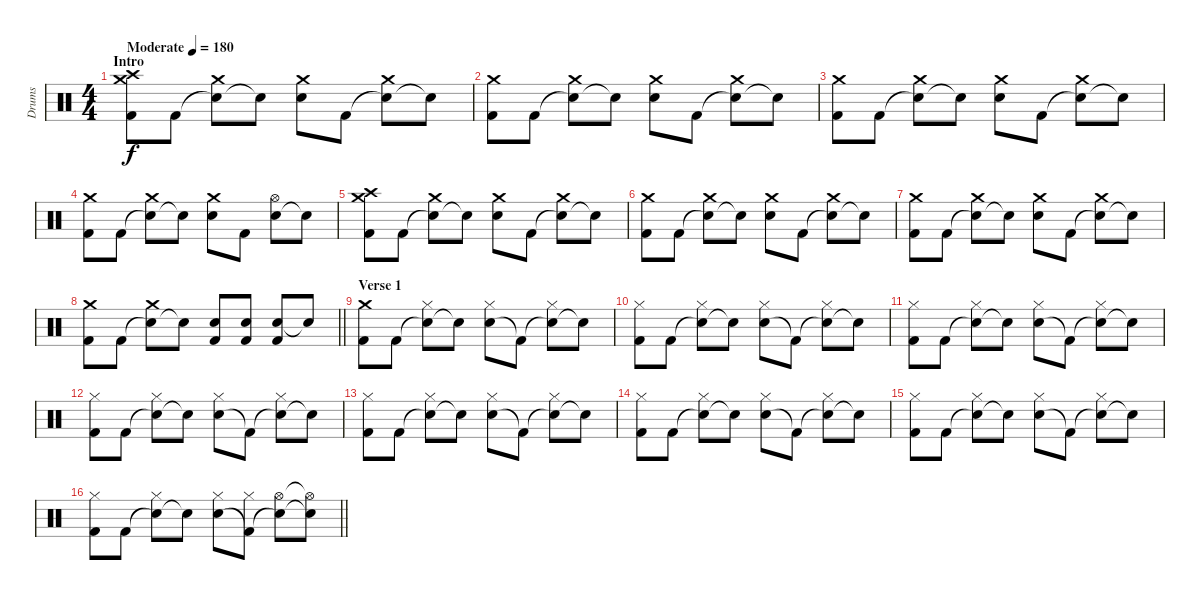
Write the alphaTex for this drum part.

\track ("Drums" "Drums") {instrument percussion}
\staff {score}
\articulation defaults
\ts (4 4)
\section ("" "Intro")
\tempo (180 "Moderate")
\clef neutral
\ks c
("Kick (hit) 2" "Crash medium (hit)" "Crash high (hit)").8{dy f} "Kick (hit) 2".8 ("Snare (hit)"{t} "Crash medium (hit)").8 "Snare (hit)"{t}.8 ("Electric Snare (hit)" "Crash medium (hit)").8 "Kick (hit) 2".8 ("Snare (hit)"{t} "Crash medium (hit)").8 "Snare (hit)"{t}.8 |
("Kick (hit) 2" "Crash medium (hit)").8 "Kick (hit) 2".8 ("Snare (hit)"{t} "Crash medium (hit)").8 "Snare (hit)"{t}.8 ("Electric Snare (hit)" "Crash medium (hit)").8 "Kick (hit) 2".8 ("Snare (hit)"{t} "Crash medium (hit)").8 "Snare (hit)"{t}.8 |
("Kick (hit) 2" "Crash medium (hit)").8 "Kick (hit) 2".8 ("Snare (hit)"{t} "Crash medium (hit)").8 "Snare (hit)"{t}.8 ("Electric Snare (hit)" "Crash medium (hit)").8 "Kick (hit) 2".8 ("Snare (hit)"{t} "Crash medium (hit)").8 "Snare (hit)"{t}.8 |
("Kick (hit) 2" "Crash medium (hit)").8 "Kick (hit) 2".8 ("Snare (hit)"{t} "Crash medium (hit)").8 "Snare (hit)"{t}.8 ("Electric Snare (hit)" "Crash medium (hit)").8 "Kick (hit) 2".8 ("Electric Snare (hit)" "Hi-Hat (open)").8 "Snare (hit)"{t}.8 |
("Kick (hit) 2" "Crash medium (hit)" "Crash high (hit)").8 "Kick (hit) 2".8 ("Snare (hit)"{t} "Crash medium (hit)").8 "Snare (hit)"{t}.8 ("Electric Snare (hit)" "Crash medium (hit)").8 "Kick (hit) 2".8 ("Snare (hit)"{t} "Crash medium (hit)").8 "Snare (hit)"{t}.8 |
("Kick (hit) 2" "Crash medium (hit)").8 "Kick (hit) 2".8 ("Snare (hit)"{t} "Crash medium (hit)").8 "Snare (hit)"{t}.8 ("Electric Snare (hit)" "Crash medium (hit)").8 "Kick (hit) 2".8 ("Snare (hit)"{t} "Crash medium (hit)").8 "Snare (hit)"{t}.8 |
("Kick (hit) 2" "Crash medium (hit)").8 "Kick (hit) 2".8 ("Snare (hit)"{t} "Crash medium (hit)").8 "Snare (hit)"{t}.8 ("Electric Snare (hit)" "Crash medium (hit)").8 "Kick (hit) 2".8 ("Snare (hit)"{t} "Crash medium (hit)").8 "Snare (hit)"{t}.8 |
\barLineRight lightlight
("Kick (hit) 2" "Crash medium (hit)").8 "Kick (hit) 2".8 ("Snare (hit)"{t} "Crash medium (hit)").8 "Snare (hit)"{t}.8 ("Electric Snare (hit)" "Kick (hit) 2").8 ("Electric Snare (hit)" "Kick (hit) 2").8 ("Electric Snare (hit)" "Kick (hit) 2").8 "Snare (hit)"{t}.8 |
\section ("" "Verse 1")
("Kick (hit) 2" "Crash medium (hit)").8 "Kick (hit) 2".8 ("Snare (hit)"{t} "Hi-Hat (closed)").8 "Snare (hit)"{t}.8 ("Electric Snare (hit)" "Hi-Hat (closed)").8 "Kick (hit) 2"{t}.8 ("Snare (hit)"{t} "Hi-Hat (closed)").8 "Snare (hit)"{t}.8 |
("Kick (hit) 2" "Hi-Hat (closed)").8 "Kick (hit) 2".8 ("Snare (hit)"{t} "Hi-Hat (closed)").8 "Snare (hit)"{t}.8 ("Electric Snare (hit)" "Hi-Hat (closed)").8 "Kick (hit) 2"{t}.8 ("Snare (hit)"{t} "Hi-Hat (closed)").8 "Snare (hit)"{t}.8 |
("Kick (hit) 2" "Hi-Hat (closed)").8 "Kick (hit) 2".8 ("Snare (hit)"{t} "Hi-Hat (closed)").8 "Snare (hit)"{t}.8 ("Electric Snare (hit)" "Hi-Hat (closed)").8 "Kick (hit) 2"{t}.8 ("Snare (hit)"{t} "Hi-Hat (closed)").8 "Snare (hit)"{t}.8 |
("Kick (hit) 2" "Hi-Hat (closed)").8 "Kick (hit) 2".8 ("Snare (hit)"{t} "Hi-Hat (closed)").8 "Snare (hit)"{t}.8 ("Electric Snare (hit)" "Hi-Hat (closed)").8 "Kick (hit) 2"{t}.8 ("Snare (hit)"{t} "Hi-Hat (closed)").8 "Snare (hit)"{t}.8 |
("Kick (hit) 2" "Hi-Hat (closed)").8 "Kick (hit) 2".8 ("Snare (hit)"{t} "Hi-Hat (closed)").8 "Snare (hit)"{t}.8 ("Electric Snare (hit)" "Hi-Hat (closed)").8 "Kick (hit) 2"{t}.8 ("Snare (hit)"{t} "Hi-Hat (closed)").8 "Snare (hit)"{t}.8 |
("Kick (hit) 2" "Hi-Hat (closed)").8 "Kick (hit) 2".8 ("Snare (hit)"{t} "Hi-Hat (closed)").8 "Snare (hit)"{t}.8 ("Electric Snare (hit)" "Hi-Hat (closed)").8 "Kick (hit) 2"{t}.8 ("Snare (hit)"{t} "Hi-Hat (closed)").8 "Snare (hit)"{t}.8 |
("Kick (hit) 2" "Hi-Hat (closed)").8 "Kick (hit) 2".8 ("Snare (hit)"{t} "Hi-Hat (closed)").8 "Snare (hit)"{t}.8 ("Electric Snare (hit)" "Hi-Hat (closed)").8 "Kick (hit) 2"{t}.8 ("Snare (hit)"{t} "Hi-Hat (closed)").8 "Snare (hit)"{t}.8 |
\barLineRight lightlight
("Kick (hit) 2" "Hi-Hat (closed)").8 "Kick (hit) 2".8 ("Snare (hit)"{t} "Hi-Hat (closed)").8 "Snare (hit)"{t}.8 ("Electric Snare (hit)" "Hi-Hat (closed)").8 ("Kick (hit) 2"{t} "Hi-Hat (closed)").8 ("Snare (hit)"{t} "Hi-Hat (open)").8 ("Snare (hit)"{t} "Hi-Hat (open)"{t}).8
